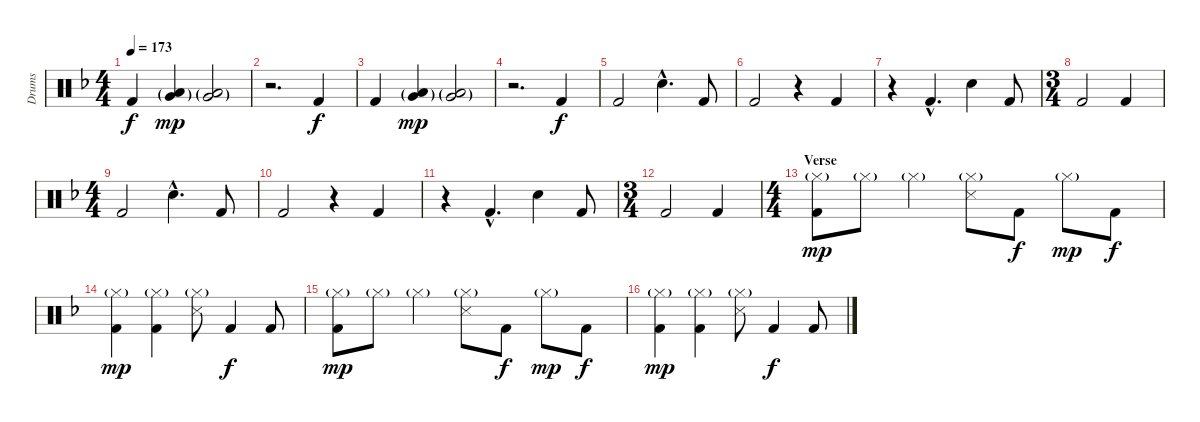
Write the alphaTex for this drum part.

\track ("Drums" "Drums") {instrument percussion}
\staff {score}
\articulation defaults
\ts (4 4)
\tempo 173
\clef neutral
\ks dminor "Kick (hit) 2".4{dy f}
("Low Floor Tom (hit)"{g} "Very Low Tom (hit)"{g}).4{dy mp} ("Low Floor Tom (hit)"{g} "Very Low Tom (hit)"{g}).2 |
r.2{d} "Kick (hit) 2".4{dy f} |
"Kick (hit) 2".4 ("Low Floor Tom (hit)"{g} "Very Low Tom (hit)"{g}).4{dy mp} ("Low Floor Tom (hit)"{g} "Very Low Tom (hit)"{g}).2 |
r.2{d} "Kick (hit) 2".4{dy f} |
"Kick (hit) 2".2 "Snare (hit) 2"{hac}.4{d} "Kick (hit) 2".8 |
"Kick (hit) 2".2 r.4 "Kick (hit) 2".4 |
r.4 "Kick (hit) 2"{hac}.4{d} "Snare (hit) 2".4 "Kick (hit) 2".8 |
\ts (3 4)
"Kick (hit) 2".2 "Kick (hit) 2".4 |
\ts (4 4)
"Kick (hit) 2".2 "Snare (hit) 2"{hac}.4{d} "Kick (hit) 2".8 |
"Kick (hit) 2".2 r.4 "Kick (hit) 2".4 |
r.4 "Kick (hit) 2"{hac}.4{d} "Snare (hit) 2".4 "Kick (hit) 2".8 |
\ts (3 4)
"Kick (hit) 2".2 "Kick (hit) 2".4 |
\ts (4 4)
\section ("" "Verse")
("Hi-Hat (closed)"{g} "Kick (hit) 2").8{dy mp} "Hi-Hat (closed)"{g}.8 "Hi-Hat (closed)"{g}.4 ("Hi-Hat (closed)"{g} "Snare (side stick) 3").8 "Kick (hit) 2".8{dy f} "Hi-Hat (closed)"{g}.8{dy mp} "Kick (hit) 2".8{dy f} |
("Hi-Hat (closed)"{g} "Kick (hit) 2").4{dy mp} ("Hi-Hat (closed)"{g} "Kick (hit) 2").4 ("Hi-Hat (closed)"{g} "Snare (side stick) 3").8 "Kick (hit) 2".4{dy f} "Kick (hit) 2".8 |
("Hi-Hat (closed)"{g} "Kick (hit) 2").8{dy mp} "Hi-Hat (closed)"{g}.8 "Hi-Hat (closed)"{g}.4 ("Hi-Hat (closed)"{g} "Snare (side stick) 3").8 "Kick (hit) 2".8{dy f} "Hi-Hat (closed)"{g}.8{dy mp} "Kick (hit) 2".8{dy f} |
("Hi-Hat (closed)"{g} "Kick (hit) 2").4{dy mp} ("Hi-Hat (closed)"{g} "Kick (hit) 2").4 ("Hi-Hat (closed)"{g} "Snare (side stick) 3").8 "Kick (hit) 2".4{dy f} "Kick (hit) 2".8
